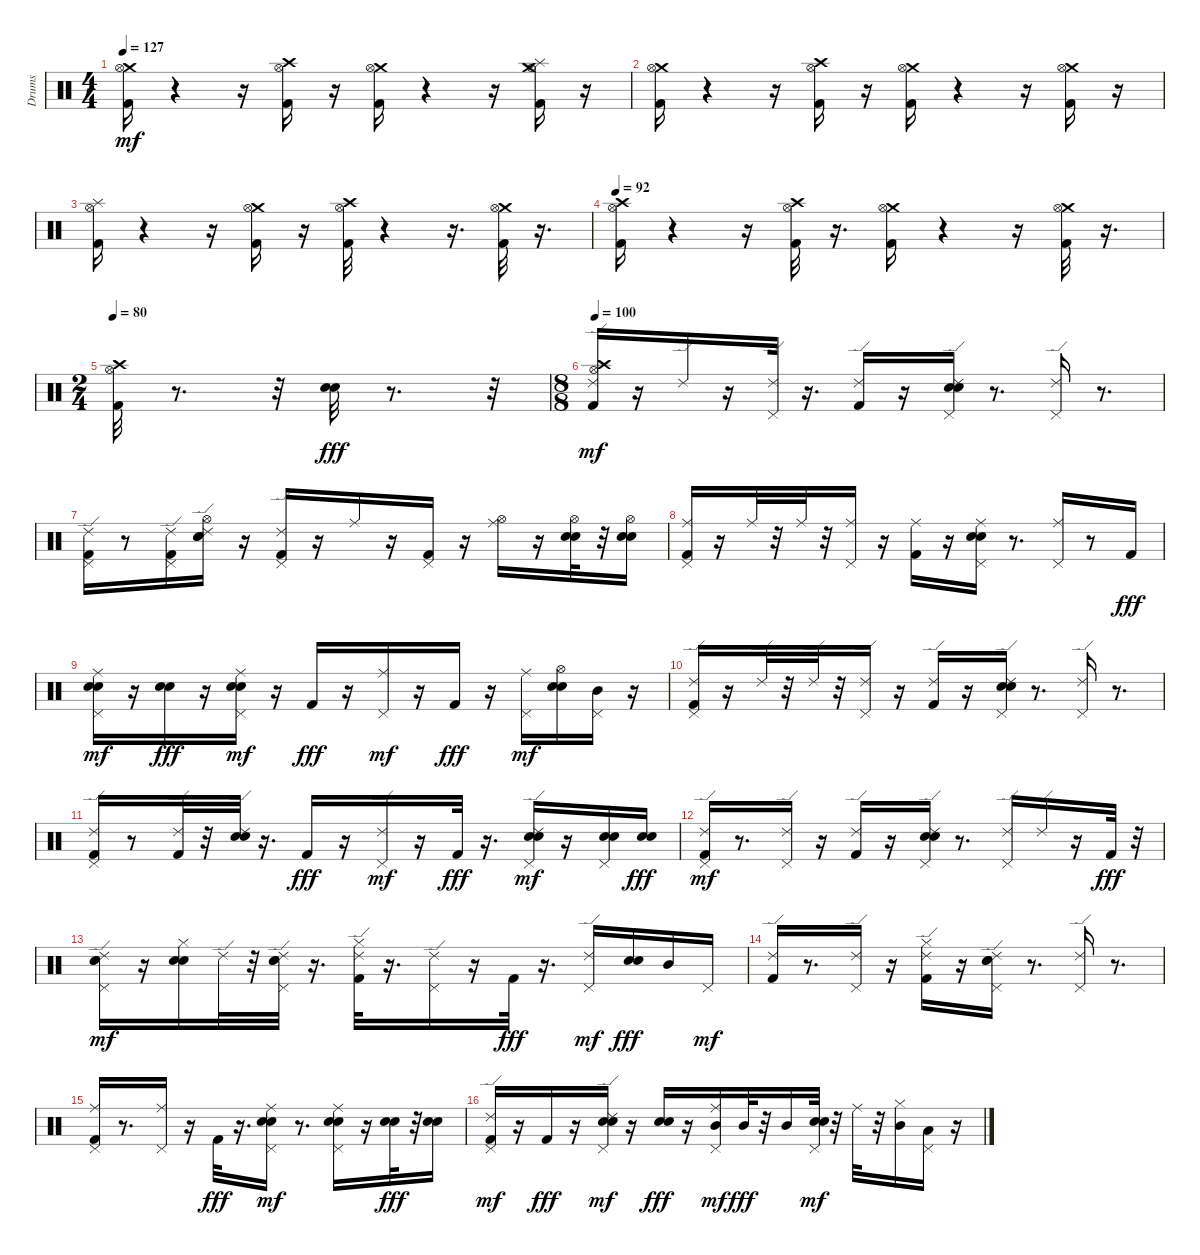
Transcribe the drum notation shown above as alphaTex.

\track ("Drums" "Drums") {instrument percussion}
\staff {score}
\articulation defaults
\ts (4 4)
\tempo 127
\clef neutral
\ks c
("Crash medium (hit)" "Kick (hit) 2" "Hi-Hat (open)").16{dy mf} r.4 r.16 ("Kick (hit) 2" "Crash high (hit)" "Hi-Hat (open)").16 r.16 ("Kick (hit) 2" "Crash medium (hit)" "Hi-Hat (open)").16 r.4 r.16 ("Kick (hit) 2" "Splash (hit)" "Crash medium (hit)" "Hi-Hat (open)").16 r.16 |
("Kick (hit) 2" "Crash medium (hit)" "Hi-Hat (open)").16 r.4 r.16 ("Crash high (hit)" "Kick (hit) 2" "Hi-Hat (open)").16 r.16 ("Kick (hit) 2" "Crash medium (hit)" "Hi-Hat (open)").16 r.4 r.16 ("Kick (hit) 2" "Crash medium (hit)" "Hi-Hat (open)").16 r.16 |
("Kick (hit) 2" "Splash (hit)" "Hi-Hat (open)").16 r.4 r.16 ("Kick (hit) 2" "Crash medium (hit)" "Hi-Hat (open)").16 r.16 ("Crash high (hit)" "Kick (hit) 2" "Hi-Hat (open)").32 r.4 r.16{d} ("Crash medium (hit)" "Kick (hit) 2" "Hi-Hat (open)").32 r.16{d} |
\tempo 92
("Crash high (hit)" "Kick (hit) 2" "Hi-Hat (open)").16 r.4 r.16 ("Crash high (hit)" "Kick (hit) 2" "Hi-Hat (open)").32 r.16{d} ("Crash medium (hit)" "Kick (hit) 2" "Hi-Hat (open)").16 r.4 r.16 ("Kick (hit) 2" "Crash medium (hit)" "Hi-Hat (open)").32 r.16{d} |
\ts (2 4)
\tempo 80
("Crash high (hit)" "Kick (hit) 2" "Hi-Hat (open)").32 r.8{d} r.32 ("Electric Snare (hit)" "Snare (hit) 2").32{dy fff} r.8{d} r.32 |
\ts (8 8)
\tempo 100
("Crash high (hit)" "Kick (hit) 2" "Hi-Hat (open)" "Ride (edge) 2").16{dy mf} r.16 "Ride (edge) 2".16 r.16 ("Pedal Hi-Hat (hit)" "Ride (edge) 2").32 r.16{d} ("Kick (hit) 2" "Ride (edge) 2").16 r.16 ("Electric Snare (hit)" "Snare (hit) 2" "Pedal Hi-Hat (hit)" "Ride (edge) 2").16 r.8{d} ("Pedal Hi-Hat (hit)" "Ride (edge) 2").16 r.8{d} |
("Kick (hit) 2" "Pedal Hi-Hat (hit)" "Ride (edge) 2").16 r.8 ("Kick (hit) 2" "Pedal Hi-Hat (hit)" "Ride (edge) 2").16 ("Electric Snare (hit)" "Snare (hit) 2" "Hi-Hat (open)" "Ride (edge) 2").16 r.16 ("Kick (hit) 2" "Pedal Hi-Hat (hit)" "Ride (edge) 2").16 r.16 "Ride (middle)".16 r.16 ("Kick (hit) 2" "Pedal Hi-Hat (hit)").16 r.16 ("Hi-Hat (open)" "Ride (middle)").16 r.16 ("Electric Snare (hit)" "Snare (hit) 2" "Hi-Hat (open)").32 r.32 ("Electric Snare (hit)" "Snare (hit) 2" "Hi-Hat (open)").16 |
("Kick (hit) 2" "Pedal Hi-Hat (hit)" "Ride (middle)").16 r.16 "Ride (middle)".32 r.32 "Ride (middle)".32 r.32 ("Pedal Hi-Hat (hit)" "Ride (middle)").16 r.16 ("Kick (hit) 2" "Ride (middle)").16 r.16 ("Electric Snare (hit)" "Snare (hit) 2" "Pedal Hi-Hat (hit)" "Ride (middle)").16 r.8{d} ("Pedal Hi-Hat (hit)" "Ride (middle)").16 r.8 "Kick (hit) 2".16{dy fff} |
("Electric Snare (hit)" "Snare (hit) 2" "Pedal Hi-Hat (hit)" "Ride (middle)").16{dy mf} r.16 ("Electric Snare (hit)" "Snare (hit) 2").16{dy fff} r.16 ("Electric Snare (hit)" "Snare (hit) 2" "Pedal Hi-Hat (hit)" "Ride (middle)").16{dy mf} r.16 "Kick (hit) 2".16{dy fff} r.16 ("Pedal Hi-Hat (hit)" "Ride (middle)").16{dy mf} r.16 "Kick (hit) 2".16{dy fff} r.16 ("Pedal Hi-Hat (hit)" "Ride (middle)").16{dy mf} ("Electric Snare (hit)" "Snare (hit) 2" "Hi-Hat (open)").16 ("Mid Tom (hit)" "Pedal Hi-Hat (hit)").16 r.16 |
("Kick (hit) 2" "Pedal Hi-Hat (hit)" "Ride (edge) 2").16 r.16 "Ride (edge) 2".32 r.32 "Ride (edge) 2".32 r.32 ("Pedal Hi-Hat (hit)" "Ride (edge) 2").16 r.16 ("Kick (hit) 2" "Ride (edge) 2").16 r.16 ("Electric Snare (hit)" "Snare (hit) 2" "Pedal Hi-Hat (hit)" "Ride (edge) 2").16 r.8{d} ("Pedal Hi-Hat (hit)" "Ride (edge) 2").16 r.8{d} |
("Kick (hit) 2" "Pedal Hi-Hat (hit)" "Ride (edge) 2").16 r.8 ("Kick (hit) 2" "Ride (edge) 2").32 r.32 ("Electric Snare (hit)" "Snare (hit) 2" "Ride (edge) 2").32{volume 16} r.16{d} "Kick (hit) 2".16{dy fff volume 16} r.16 ("Pedal Hi-Hat (hit)" "Ride (edge) 2").16{dy mf} r.16 "Kick (hit) 2".32{dy fff} r.16{d} ("Electric Snare (hit)" "Snare (hit) 2" "Pedal Hi-Hat (hit)" "Ride (edge) 2").16{dy mf} r.16 ("Electric Snare (hit)" "Snare (hit) 2" "Pedal Hi-Hat (hit)").16 ("Electric Snare (hit)" "Snare (hit) 2").16{dy fff} |
("Kick (hit) 2" "Pedal Hi-Hat (hit)" "Ride (edge) 2").16{dy mf} r.8{d} ("Pedal Hi-Hat (hit)" "Ride (edge) 2").16 r.16 ("Kick (hit) 2" "Ride (edge) 2").16 r.16 ("Electric Snare (hit)" "Snare (hit) 2" "Pedal Hi-Hat (hit)" "Ride (edge) 2").16 r.8{d} ("Pedal Hi-Hat (hit)" "Ride (edge) 2").16 "Ride (edge) 2".16 r.16 "Kick (hit) 2".32{dy fff} r.32 |
("Electric Snare (hit)" "Snare (hit) 2" "Pedal Hi-Hat (hit)" "Ride (edge) 2").16{dy mf} r.16 ("Electric Snare (hit)" "Snare (hit) 2" "Hi-Hat (closed)").16 "Ride (edge) 2".32 r.32 ("Electric Snare (hit)" "Snare (hit) 2" "Pedal Hi-Hat (hit)" "Ride (edge) 2").32 r.16{d} ("Kick (hit) 2" "Hi-Hat (closed)" "Ride (edge) 2").32 r.16{d} ("Pedal Hi-Hat (hit)" "Ride (edge) 2").16 r.16 "Kick (hit) 2".32{dy fff} r.16{d} ("Pedal Hi-Hat (hit)" "Ride (edge) 2").16{dy mf} ("Electric Snare (hit)" "Snare (hit) 2").16{dy fff} "Mid Tom (hit)".16 "Pedal Hi-Hat (hit)".16{dy mf} |
("Kick (hit) 2" "Ride (edge) 2").16 r.8{d} ("Pedal Hi-Hat (hit)" "Ride (edge) 2").16 r.16 ("Kick (hit) 2" "Hi-Hat (closed)" "Ride (edge) 2").16 r.16 ("Electric Snare (hit)" "Snare (hit) 2" "Pedal Hi-Hat (hit)" "Ride (edge) 2").16 r.8{d} ("Pedal Hi-Hat (hit)" "Ride (edge) 2").16 r.8{d} |
("Kick (hit) 2" "Pedal Hi-Hat (hit)" "Ride (middle)").16 r.8{d} ("Pedal Hi-Hat (hit)" "Ride (middle)").16 r.16 "Kick (hit) 2".32{dy fff} r.16{d} ("Electric Snare (hit)" "Snare (hit) 2" "Pedal Hi-Hat (hit)" "Ride (middle)").16{dy mf} r.8{d} ("Electric Snare (hit)" "Snare (hit) 2" "Pedal Hi-Hat (hit)" "Ride (middle)").16 r.16 ("Electric Snare (hit)" "Snare (hit) 2").32{dy fff} r.32 ("Electric Snare (hit)" "Snare (hit) 2").16 |
("Kick (hit) 2" "Pedal Hi-Hat (hit)" "Ride (edge) 2").16{dy mf} r.16 "Kick (hit) 2".16{dy fff} r.16 ("Electric Snare (hit)" "Snare (hit) 2" "Pedal Hi-Hat (hit)" "Ride (edge) 2").16{dy mf} r.16 ("Electric Snare (hit)" "Snare (hit) 2").16{dy fff} r.16 ("Mid Tom (hit)" "Pedal Hi-Hat (hit)" "Ride (middle)").16{dy mf} "Mid Tom (hit)".32{dy fff} r.32 "Mid Tom (hit)".16 ("Electric Snare (hit)" "Snare (hit) 2" "Pedal Hi-Hat (hit)").32{dy mf} r.32 "Ride (middle)".32 r.32 ("Mid Tom (hit)" "Hi-Hat (closed)").16 ("Low Tom (hit)" "Pedal Hi-Hat (hit)").16 r.16
